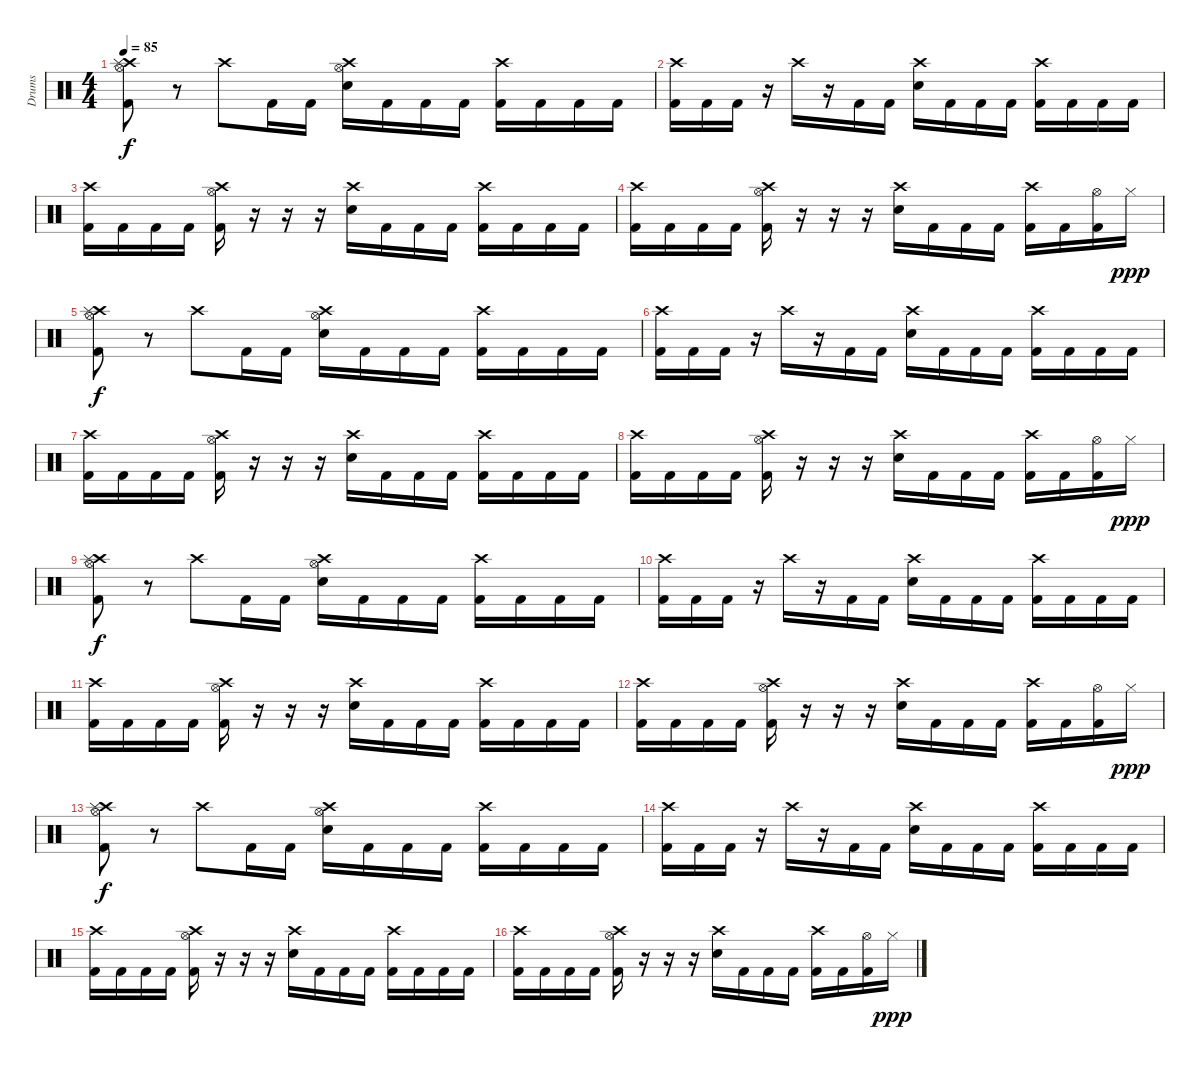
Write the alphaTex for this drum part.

\track ("Drums" "Drums") {instrument percussion}
\staff {score}
\articulation defaults
\ts (4 4)
\tempo 85
\clef neutral
\ks c
("Crash high (hit)" "Hi-Hat (open)" "Splash (hit)" "Kick (hit) 2").8{dy f} r.8 "Crash high (hit)".8 "Kick (hit) 2".16 "Kick (hit) 2".16 ("Crash high (hit)" "Hi-Hat (open)" "Electric Snare (hit)").16 "Kick (hit) 2".16 "Kick (hit) 2".16 "Kick (hit) 2".16 ("Crash high (hit)" "Kick (hit) 2").16 "Kick (hit) 2".16 "Kick (hit) 2".16 "Kick (hit) 2".16 |
("Crash high (hit)" "Kick (hit) 2").16 "Kick (hit) 2".16 "Kick (hit) 2".16 r.16 "Crash high (hit)".16 r.16 "Kick (hit) 2".16 "Kick (hit) 2".16 ("Crash high (hit)" "Electric Snare (hit)").16 "Kick (hit) 2".16 "Kick (hit) 2".16 "Kick (hit) 2".16 ("Crash high (hit)" "Kick (hit) 2").16 "Kick (hit) 2".16 "Kick (hit) 2".16 "Kick (hit) 2".16 |
("Crash high (hit)" "Kick (hit) 2").16 "Kick (hit) 2".16 "Kick (hit) 2".16 "Kick (hit) 2".16 ("Crash high (hit)" "Hi-Hat (open)" "Kick (hit) 2").16 r.16 r.16 r.16 ("Crash high (hit)" "Electric Snare (hit)").16 "Kick (hit) 2".16 "Kick (hit) 2".16 "Kick (hit) 2".16 ("Crash high (hit)" "Kick (hit) 2").16 "Kick (hit) 2".16 "Kick (hit) 2".16 "Kick (hit) 2".16 |
("Crash high (hit)" "Kick (hit) 2").16 "Kick (hit) 2".16 "Kick (hit) 2".16 "Kick (hit) 2".16 ("Crash high (hit)" "Hi-Hat (open)" "Kick (hit) 2").16 r.16 r.16 r.16 ("Crash high (hit)" "Electric Snare (hit)").16 "Kick (hit) 2".16 "Kick (hit) 2".16 "Kick (hit) 2".16 ("Crash high (hit)" "Kick (hit) 2").16 "Kick (hit) 2".16 ("Hi-Hat (open)" "Kick (hit) 2").16 "Hi-Hat (closed)".16{dy ppp} |
("Crash high (hit)" "Hi-Hat (open)" "Splash (hit)" "Kick (hit) 2").8{dy f} r.8 "Crash high (hit)".8 "Kick (hit) 2".16 "Kick (hit) 2".16 ("Crash high (hit)" "Hi-Hat (open)" "Electric Snare (hit)").16 "Kick (hit) 2".16 "Kick (hit) 2".16 "Kick (hit) 2".16 ("Crash high (hit)" "Kick (hit) 2").16 "Kick (hit) 2".16 "Kick (hit) 2".16 "Kick (hit) 2".16 |
("Crash high (hit)" "Kick (hit) 2").16 "Kick (hit) 2".16 "Kick (hit) 2".16 r.16 "Crash high (hit)".16 r.16 "Kick (hit) 2".16 "Kick (hit) 2".16 ("Crash high (hit)" "Electric Snare (hit)").16 "Kick (hit) 2".16 "Kick (hit) 2".16 "Kick (hit) 2".16 ("Crash high (hit)" "Kick (hit) 2").16 "Kick (hit) 2".16 "Kick (hit) 2".16 "Kick (hit) 2".16 |
("Crash high (hit)" "Kick (hit) 2").16 "Kick (hit) 2".16 "Kick (hit) 2".16 "Kick (hit) 2".16 ("Crash high (hit)" "Hi-Hat (open)" "Kick (hit) 2").16 r.16 r.16 r.16 ("Crash high (hit)" "Electric Snare (hit)").16 "Kick (hit) 2".16 "Kick (hit) 2".16 "Kick (hit) 2".16 ("Crash high (hit)" "Kick (hit) 2").16 "Kick (hit) 2".16 "Kick (hit) 2".16 "Kick (hit) 2".16 |
("Crash high (hit)" "Kick (hit) 2").16 "Kick (hit) 2".16 "Kick (hit) 2".16 "Kick (hit) 2".16 ("Crash high (hit)" "Hi-Hat (open)" "Kick (hit) 2").16 r.16 r.16 r.16 ("Crash high (hit)" "Electric Snare (hit)").16 "Kick (hit) 2".16 "Kick (hit) 2".16 "Kick (hit) 2".16 ("Crash high (hit)" "Kick (hit) 2").16 "Kick (hit) 2".16 ("Hi-Hat (open)" "Kick (hit) 2").16 "Hi-Hat (closed)".16{dy ppp} |
("Crash high (hit)" "Hi-Hat (open)" "Splash (hit)" "Kick (hit) 2").8{dy f} r.8 "Crash high (hit)".8 "Kick (hit) 2".16 "Kick (hit) 2".16 ("Crash high (hit)" "Hi-Hat (open)" "Electric Snare (hit)").16 "Kick (hit) 2".16 "Kick (hit) 2".16 "Kick (hit) 2".16 ("Crash high (hit)" "Kick (hit) 2").16 "Kick (hit) 2".16 "Kick (hit) 2".16 "Kick (hit) 2".16 |
("Crash high (hit)" "Kick (hit) 2").16 "Kick (hit) 2".16 "Kick (hit) 2".16 r.16 "Crash high (hit)".16 r.16 "Kick (hit) 2".16 "Kick (hit) 2".16 ("Crash high (hit)" "Electric Snare (hit)").16 "Kick (hit) 2".16 "Kick (hit) 2".16 "Kick (hit) 2".16 ("Crash high (hit)" "Kick (hit) 2").16 "Kick (hit) 2".16 "Kick (hit) 2".16 "Kick (hit) 2".16 |
("Crash high (hit)" "Kick (hit) 2").16 "Kick (hit) 2".16 "Kick (hit) 2".16 "Kick (hit) 2".16 ("Crash high (hit)" "Hi-Hat (open)" "Kick (hit) 2").16 r.16 r.16 r.16 ("Crash high (hit)" "Electric Snare (hit)").16 "Kick (hit) 2".16 "Kick (hit) 2".16 "Kick (hit) 2".16 ("Crash high (hit)" "Kick (hit) 2").16 "Kick (hit) 2".16 "Kick (hit) 2".16 "Kick (hit) 2".16 |
("Crash high (hit)" "Kick (hit) 2").16 "Kick (hit) 2".16 "Kick (hit) 2".16 "Kick (hit) 2".16 ("Crash high (hit)" "Hi-Hat (open)" "Kick (hit) 2").16 r.16 r.16 r.16 ("Crash high (hit)" "Electric Snare (hit)").16 "Kick (hit) 2".16 "Kick (hit) 2".16 "Kick (hit) 2".16 ("Crash high (hit)" "Kick (hit) 2").16 "Kick (hit) 2".16 ("Hi-Hat (open)" "Kick (hit) 2").16 "Hi-Hat (closed)".16{dy ppp} |
("Crash high (hit)" "Hi-Hat (open)" "Splash (hit)" "Kick (hit) 2").8{dy f} r.8 "Crash high (hit)".8 "Kick (hit) 2".16 "Kick (hit) 2".16 ("Crash high (hit)" "Hi-Hat (open)" "Electric Snare (hit)").16 "Kick (hit) 2".16 "Kick (hit) 2".16 "Kick (hit) 2".16 ("Crash high (hit)" "Kick (hit) 2").16 "Kick (hit) 2".16 "Kick (hit) 2".16 "Kick (hit) 2".16 |
("Crash high (hit)" "Kick (hit) 2").16 "Kick (hit) 2".16 "Kick (hit) 2".16 r.16 "Crash high (hit)".16 r.16 "Kick (hit) 2".16 "Kick (hit) 2".16 ("Crash high (hit)" "Electric Snare (hit)").16 "Kick (hit) 2".16 "Kick (hit) 2".16 "Kick (hit) 2".16 ("Crash high (hit)" "Kick (hit) 2").16 "Kick (hit) 2".16 "Kick (hit) 2".16 "Kick (hit) 2".16 |
("Crash high (hit)" "Kick (hit) 2").16 "Kick (hit) 2".16 "Kick (hit) 2".16 "Kick (hit) 2".16 ("Crash high (hit)" "Hi-Hat (open)" "Kick (hit) 2").16 r.16 r.16 r.16 ("Crash high (hit)" "Electric Snare (hit)").16 "Kick (hit) 2".16 "Kick (hit) 2".16 "Kick (hit) 2".16 ("Crash high (hit)" "Kick (hit) 2").16 "Kick (hit) 2".16 "Kick (hit) 2".16 "Kick (hit) 2".16 |
("Crash high (hit)" "Kick (hit) 2").16 "Kick (hit) 2".16 "Kick (hit) 2".16 "Kick (hit) 2".16 ("Crash high (hit)" "Hi-Hat (open)" "Kick (hit) 2").16 r.16 r.16 r.16 ("Crash high (hit)" "Electric Snare (hit)").16 "Kick (hit) 2".16 "Kick (hit) 2".16 "Kick (hit) 2".16 ("Crash high (hit)" "Kick (hit) 2").16 "Kick (hit) 2".16 ("Hi-Hat (open)" "Kick (hit) 2").16 "Hi-Hat (closed)".16{dy ppp}
